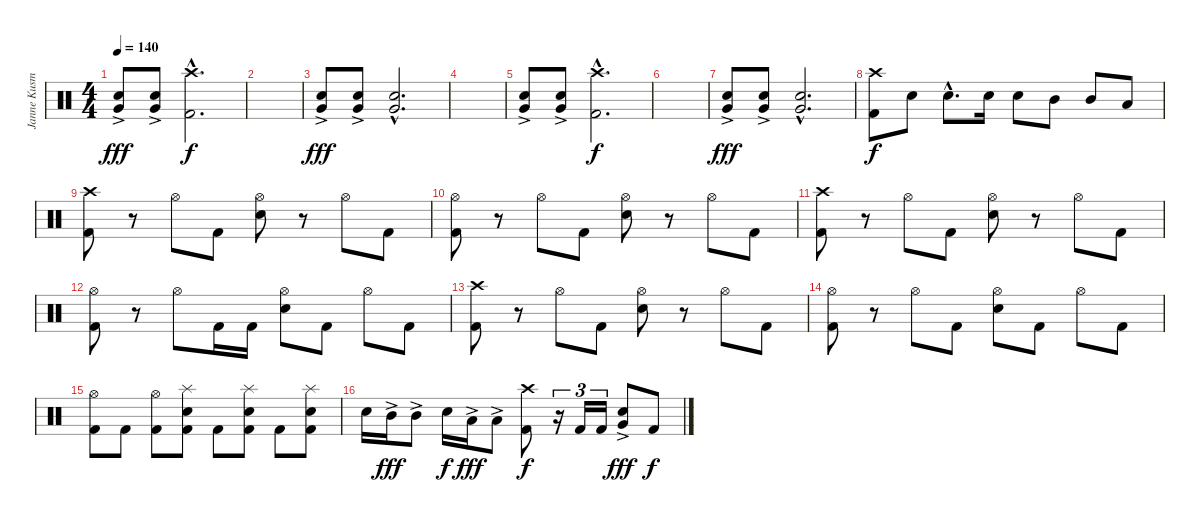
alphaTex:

\track ("Janne Kusmin" "Janne Kusm") {instrument percussion}
\staff {score}
\articulation defaults
\ts (4 4)
\tempo 140
\clef neutral
\ks c
("Very Low Tom (hit)"{ac} "Electric Snare (hit)").8{dy fff} ("Very Low Tom (hit)"{ac} "Electric Snare (hit)").8 ("Crash high (hit)"{hac} "Kick (hit) 2"{hac}).2{d dy f} |
|
("Very Low Tom (hit)"{ac} "Electric Snare (hit)").8{dy fff} ("Very Low Tom (hit)"{ac} "Electric Snare (hit)").8 ("Very Low Tom (hit)"{hac} "Electric Snare (hit)"{hac}).2{d} |
|
("Very Low Tom (hit)"{ac} "Electric Snare (hit)").8 ("Very Low Tom (hit)"{ac} "Electric Snare (hit)").8 ("Crash high (hit)"{hac} "Kick (hit) 2"{hac}).2{d dy f} |
|
("Very Low Tom (hit)"{ac} "Electric Snare (hit)").8{dy fff} ("Very Low Tom (hit)"{ac} "Electric Snare (hit)").8 ("Very Low Tom (hit)"{hac} "Electric Snare (hit)"{hac}).2{d} |
("Crash high (hit)" "Kick (hit) 2").8{dy f} "Electric Snare (hit)".8 "Electric Snare (hit)"{hac}.8{d} "Electric Snare (hit)".16 "Electric Snare (hit)".8 "Mid Tom (hit)".8 "Mid Tom (hit)".8 "Low Tom (hit)".8 |
("Crash high (hit)" "Kick (hit) 2").8 r.8 "Hi-Hat (open)".8 "Kick (hit) 2".8 ("Hi-Hat (open)" "Electric Snare (hit)").8 r.8 "Hi-Hat (open)".8 "Kick (hit) 2".8 |
("Hi-Hat (open)" "Kick (hit) 2").8 r.8 "Hi-Hat (open)".8 "Kick (hit) 2".8 ("Hi-Hat (open)" "Electric Snare (hit)").8 r.8 "Hi-Hat (open)".8 "Kick (hit) 2".8 |
("Crash high (hit)" "Kick (hit) 2").8 r.8 "Hi-Hat (open)".8 "Kick (hit) 2".8 ("Hi-Hat (open)" "Electric Snare (hit)").8 r.8 "Hi-Hat (open)".8 "Kick (hit) 2".8 |
("Hi-Hat (open)" "Kick (hit) 2").8 r.8 "Hi-Hat (open)".8 "Kick (hit) 2".16 "Kick (hit) 2".16 ("Hi-Hat (open)" "Electric Snare (hit)").8 "Kick (hit) 2".8 "Hi-Hat (open)".8 "Kick (hit) 2".8 |
("Crash high (hit)" "Kick (hit) 2").8 r.8 "Hi-Hat (open)".8 "Kick (hit) 2".8 ("Hi-Hat (open)" "Electric Snare (hit)").8 r.8 "Hi-Hat (open)".8 "Kick (hit) 2".8 |
("Hi-Hat (open)" "Kick (hit) 2").8 r.8 "Hi-Hat (open)".8 "Kick (hit) 2".8 ("Hi-Hat (open)" "Electric Snare (hit)").8 "Kick (hit) 2".8 "Hi-Hat (open)".8 "Kick (hit) 2".8 |
\section ("" "")
("Hi-Hat (open)" "Kick (hit) 2").8 "Kick (hit) 2".8 ("Hi-Hat (open)" "Kick (hit) 2").8 ("Splash (hit)" "Electric Snare (hit)" "Kick (hit) 2").8 "Kick (hit) 2".8 ("Splash (hit)" "Electric Snare (hit)" "Kick (hit) 2").8 "Kick (hit) 2".8 ("Splash (hit)" "Electric Snare (hit)" "Kick (hit) 2").8 |
"Electric Snare (hit)".16 "Mid Tom (hit)"{ac}.16{dy fff} "Mid Tom (hit)"{ac}.8 "Electric Snare (hit)".16{dy f} "Low Tom (hit)"{ac}.16{dy fff} "Low Tom (hit)"{ac}.8 ("Crash high (hit)" "Kick (hit) 2").8{dy f} r.16{tu (3 2)} "Kick (hit) 2".16{tu (3 2)} "Kick (hit) 2".16{tu (3 2)} ("Very Low Tom (hit)"{ac} "Electric Snare (hit)").8{dy fff} "Kick (hit) 2".8{dy f}
